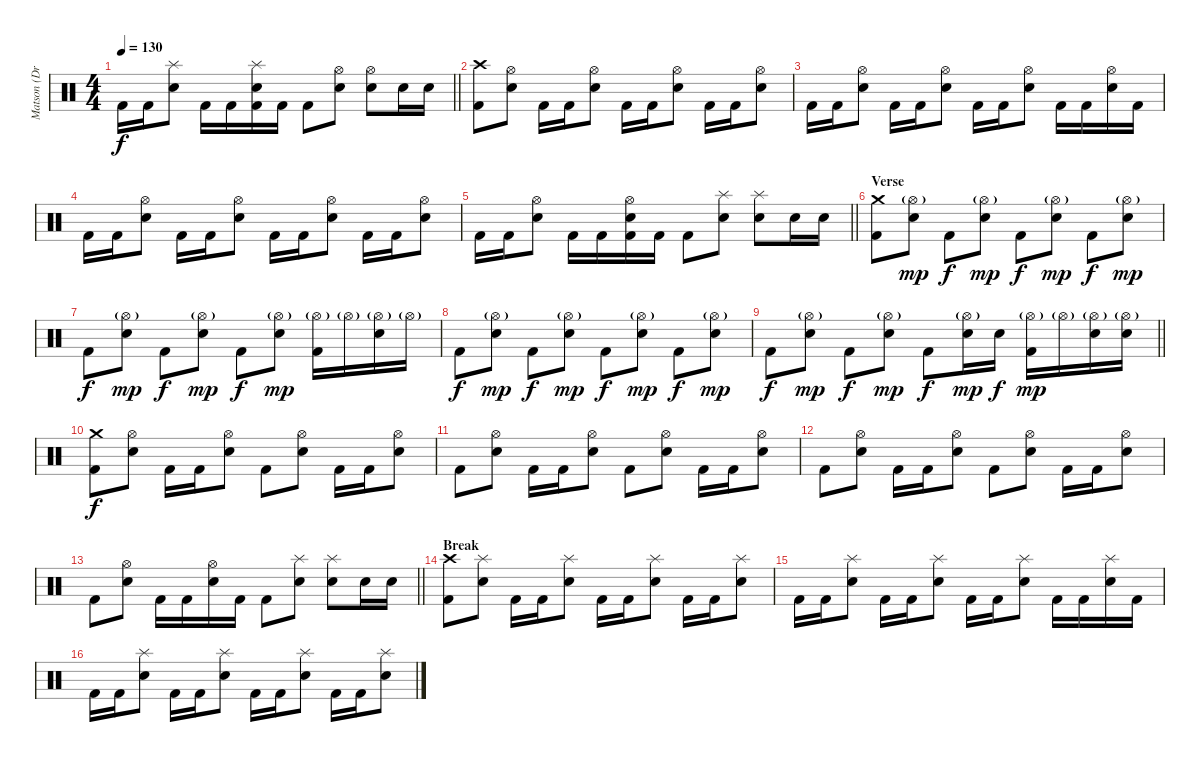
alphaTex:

\track ("Matson (Drums)" "Matson (Dr") {instrument percussion}
\staff {score}
\articulation defaults
\ts (4 4)
\tempo 130
\clef neutral
\barLineRight lightlight
\ks c "Kick (hit) 2".16{dy f} "Kick (hit) 2".16
("Snare (hit) 2" "Splash (hit)").8 "Kick (hit) 2".16 "Kick (hit) 2".16 ("Kick (hit) 2" "Snare (hit) 2" "Splash (hit)").16 "Kick (hit) 2".16 "Kick (hit) 2".8 ("Snare (hit) 2" "Hi-Hat (open)").8 ("Snare (hit) 2" "Hi-Hat (open)").8 "Snare (hit) 2".16 "Snare (hit) 2".16 |
\section ("" "")
("Kick (hit) 2" "Crash high (hit)").8 ("Snare (hit) 2" "Hi-Hat (open)").8 "Kick (hit) 2".16 "Kick (hit) 2".16 ("Snare (hit) 2" "Hi-Hat (open)").8 "Kick (hit) 2".16 "Kick (hit) 2".16 ("Snare (hit) 2" "Hi-Hat (open)").8 "Kick (hit) 2".16 "Kick (hit) 2".16 ("Snare (hit) 2" "Hi-Hat (open)").8 |
"Kick (hit) 2".16 "Kick (hit) 2".16 ("Snare (hit) 2" "Hi-Hat (open)").8 "Kick (hit) 2".16 "Kick (hit) 2".16 ("Snare (hit) 2" "Hi-Hat (open)").8 "Kick (hit) 2".16 "Kick (hit) 2".16 ("Snare (hit) 2" "Hi-Hat (open)").8 "Kick (hit) 2".16 "Kick (hit) 2".16 ("Snare (hit) 2" "Hi-Hat (open)").16 "Kick (hit) 2".16 |
"Kick (hit) 2".16 "Kick (hit) 2".16 ("Snare (hit) 2" "Hi-Hat (open)").8 "Kick (hit) 2".16 "Kick (hit) 2".16 ("Snare (hit) 2" "Hi-Hat (open)").8 "Kick (hit) 2".16 "Kick (hit) 2".16 ("Snare (hit) 2" "Hi-Hat (open)").8 "Kick (hit) 2".16 "Kick (hit) 2".16 ("Snare (hit) 2" "Hi-Hat (open)").8 |
\barLineRight lightlight "Kick (hit) 2".16 "Kick (hit) 2".16
("Snare (hit) 2" "Hi-Hat (open)").8 "Kick (hit) 2".16 "Kick (hit) 2".16 ("Kick (hit) 2" "Snare (hit) 2" "Hi-Hat (open)").16 "Kick (hit) 2".16 "Kick (hit) 2".8 ("Snare (hit) 2" "Splash (hit)").8 ("Snare (hit) 2" "Splash (hit)").8 "Snare (hit) 2".16 "Snare (hit) 2".16 |
\section ("" "Verse")
("Kick (hit) 2" "Crash medium (hit)").8 ("Snare (hit) 2" "Hi-Hat (open)"{g}).8{dy mp} "Kick (hit) 2".8{dy f} ("Snare (hit) 2" "Hi-Hat (open)"{g}).8{dy mp} "Kick (hit) 2".8{dy f} ("Snare (hit) 2" "Hi-Hat (open)"{g}).8{dy mp} "Kick (hit) 2".8{dy f} ("Snare (hit) 2" "Hi-Hat (open)"{g}).8{dy mp} |
"Kick (hit) 2".8{dy f} ("Snare (hit) 2" "Hi-Hat (open)"{g}).8{dy mp} "Kick (hit) 2".8{dy f} ("Snare (hit) 2" "Hi-Hat (open)"{g}).8{dy mp} "Kick (hit) 2".8{dy f} ("Snare (hit) 2" "Hi-Hat (open)"{g}).8{dy mp} ("Kick (hit) 2" "Hi-Hat (open)"{g}).16 "Hi-Hat (open)"{g}.16 ("Snare (hit) 2" "Hi-Hat (open)"{g}).16 "Hi-Hat (open)"{g}.16 |
"Kick (hit) 2".8{dy f} ("Snare (hit) 2" "Hi-Hat (open)"{g}).8{dy mp} "Kick (hit) 2".8{dy f} ("Snare (hit) 2" "Hi-Hat (open)"{g}).8{dy mp} "Kick (hit) 2".8{dy f} ("Snare (hit) 2" "Hi-Hat (open)"{g}).8{dy mp} "Kick (hit) 2".8{dy f} ("Snare (hit) 2" "Hi-Hat (open)"{g}).8{dy mp} |
\barLineRight lightlight "Kick (hit) 2".8{dy f}
("Snare (hit) 2" "Hi-Hat (open)"{g}).8{dy mp} "Kick (hit) 2".8{dy f} ("Snare (hit) 2" "Hi-Hat (open)"{g}).8{dy mp} "Kick (hit) 2".8{dy f} ("Snare (hit) 2" "Hi-Hat (open)"{g}).16{dy mp} "Snare (hit) 2".16{dy f} ("Kick (hit) 2" "Hi-Hat (open)"{g}).16{dy mp} "Hi-Hat (open)"{g}.16 ("Snare (hit) 2" "Hi-Hat (open)"{g}).16 ("Snare (hit) 2" "Hi-Hat (open)"{g}).16 |
\section ("" "")
("Kick (hit) 2" "Crash medium (hit)").8{dy f} ("Snare (hit) 2" "Hi-Hat (open)").8 "Kick (hit) 2".16 "Kick (hit) 2".16 ("Snare (hit) 2" "Hi-Hat (open)").8 "Kick (hit) 2".8 ("Snare (hit) 2" "Hi-Hat (open)").8 "Kick (hit) 2".16 "Kick (hit) 2".16 ("Snare (hit) 2" "Hi-Hat (open)").8 |
"Kick (hit) 2".8 ("Snare (hit) 2" "Hi-Hat (open)").8 "Kick (hit) 2".16 "Kick (hit) 2".16 ("Snare (hit) 2" "Hi-Hat (open)").8 "Kick (hit) 2".8 ("Snare (hit) 2" "Hi-Hat (open)").8 "Kick (hit) 2".16 "Kick (hit) 2".16 ("Snare (hit) 2" "Hi-Hat (open)").8 |
"Kick (hit) 2".8 ("Snare (hit) 2" "Hi-Hat (open)").8 "Kick (hit) 2".16 "Kick (hit) 2".16 ("Snare (hit) 2" "Hi-Hat (open)").8 "Kick (hit) 2".8 ("Snare (hit) 2" "Hi-Hat (open)").8 "Kick (hit) 2".16 "Kick (hit) 2".16 ("Snare (hit) 2" "Hi-Hat (open)").8 |
\barLineRight lightlight "Kick (hit) 2".8
("Snare (hit) 2" "Hi-Hat (open)").8 "Kick (hit) 2".16 "Kick (hit) 2".16 ("Snare (hit) 2" "Hi-Hat (open)").16 "Kick (hit) 2".16 "Kick (hit) 2".8 ("Snare (hit) 2" "Splash (hit)").8 ("Snare (hit) 2" "Splash (hit)").8 "Snare (hit) 2".16 "Snare (hit) 2".16 |
\section ("" "Break")
("Kick (hit) 2" "Crash high (hit)").8 ("Snare (hit) 2" "Splash (hit)").8 "Kick (hit) 2".16 "Kick (hit) 2".16 ("Snare (hit) 2" "Splash (hit)").8 "Kick (hit) 2".16 "Kick (hit) 2".16 ("Snare (hit) 2" "Splash (hit)").8 "Kick (hit) 2".16 "Kick (hit) 2".16 ("Snare (hit) 2" "Splash (hit)").8 |
"Kick (hit) 2".16 "Kick (hit) 2".16 ("Snare (hit) 2" "Splash (hit)").8 "Kick (hit) 2".16 "Kick (hit) 2".16 ("Snare (hit) 2" "Splash (hit)").8 "Kick (hit) 2".16 "Kick (hit) 2".16 ("Snare (hit) 2" "Splash (hit)").8 "Kick (hit) 2".16 "Kick (hit) 2".16 ("Snare (hit) 2" "Splash (hit)").16 "Kick (hit) 2".16 |
"Kick (hit) 2".16 "Kick (hit) 2".16 ("Snare (hit) 2" "Splash (hit)").8 "Kick (hit) 2".16 "Kick (hit) 2".16 ("Snare (hit) 2" "Splash (hit)").8 "Kick (hit) 2".16 "Kick (hit) 2".16 ("Snare (hit) 2" "Splash (hit)").8 "Kick (hit) 2".16 "Kick (hit) 2".16 ("Snare (hit) 2" "Splash (hit)").8
